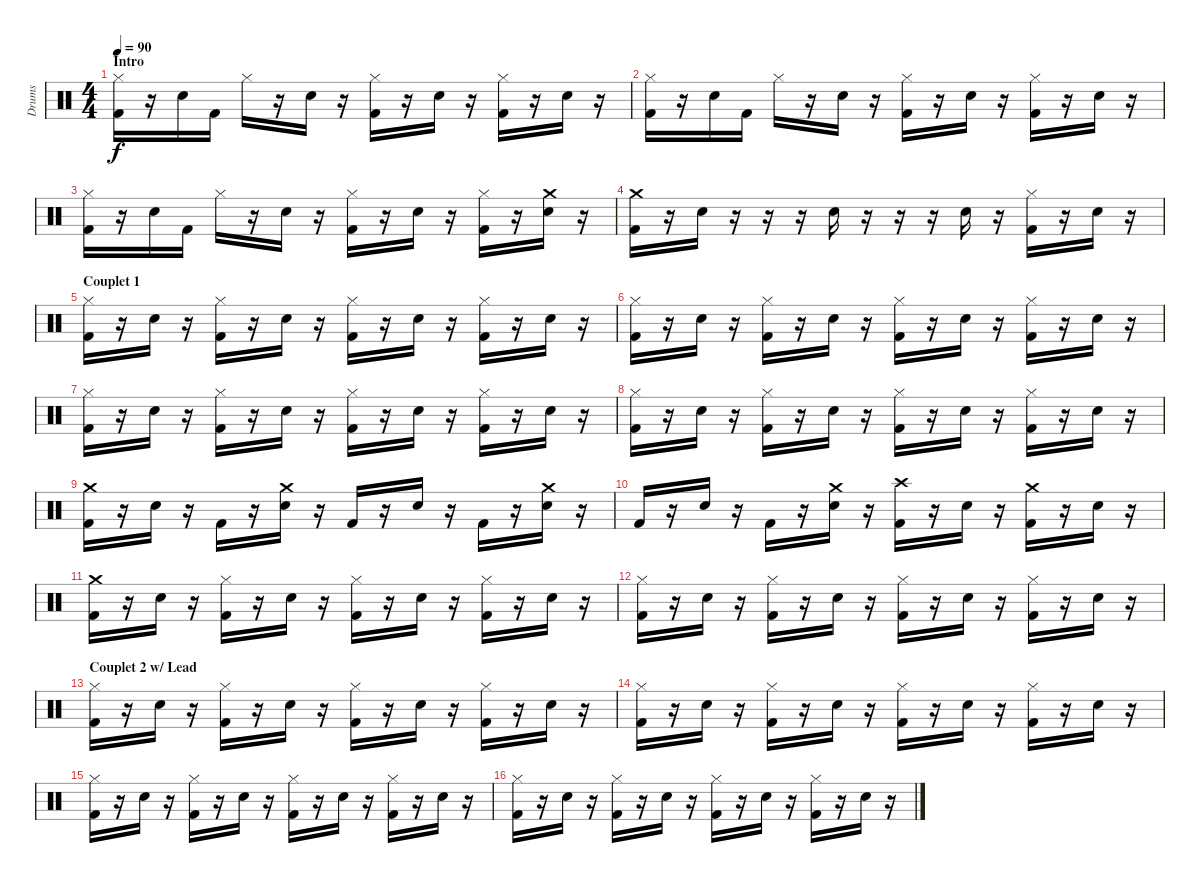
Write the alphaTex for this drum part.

\track ("Drums" "Drums") {instrument percussion}
\staff {score}
\articulation defaults
\ts (4 4)
\section ("" "Intro")
\tempo 90
\clef neutral
\ks c
("Hi-Hat (closed)" "Kick (hit) 2").16{dy f} r.16 "Electric Snare (hit)".16 "Kick (hit) 2".16 "Hi-Hat (closed)".16 r.16 "Electric Snare (hit)".16 r.16 ("Hi-Hat (closed)" "Kick (hit) 2").16 r.16 "Electric Snare (hit)".16 r.16 ("Hi-Hat (closed)" "Kick (hit) 2").16 r.16 "Electric Snare (hit)".16 r.16 |
("Hi-Hat (closed)" "Kick (hit) 2").16 r.16 "Electric Snare (hit)".16 "Kick (hit) 2".16 "Hi-Hat (closed)".16 r.16 "Electric Snare (hit)".16 r.16 ("Hi-Hat (closed)" "Kick (hit) 2").16 r.16 "Electric Snare (hit)".16 r.16 ("Hi-Hat (closed)" "Kick (hit) 2").16 r.16 "Electric Snare (hit)".16 r.16 |
("Hi-Hat (closed)" "Kick (hit) 2").16 r.16 "Electric Snare (hit)".16 "Kick (hit) 2".16 "Hi-Hat (closed)".16 r.16 "Electric Snare (hit)".16 r.16 ("Hi-Hat (closed)" "Kick (hit) 2").16 r.16 "Electric Snare (hit)".16 r.16 ("Hi-Hat (closed)" "Kick (hit) 2").16 r.16 ("Crash medium (hit)" "Electric Snare (hit)").16 r.16 |
("Crash medium (hit)" "Kick (hit) 2").16 r.16 "Electric Snare (hit)".16 r.16 r.16 r.16 "Electric Snare (hit)".16 r.16 r.16 r.16 "Electric Snare (hit)".16 r.16 ("Hi-Hat (closed)" "Kick (hit) 2").16 r.16 "Electric Snare (hit)".16 r.16 |
\section ("" "Couplet 1")
("Hi-Hat (closed)" "Kick (hit) 2").16 r.16 "Electric Snare (hit)".16 r.16 ("Hi-Hat (closed)" "Kick (hit) 2").16 r.16 "Electric Snare (hit)".16 r.16 ("Hi-Hat (closed)" "Kick (hit) 2").16 r.16 "Electric Snare (hit)".16 r.16 ("Hi-Hat (closed)" "Kick (hit) 2").16 r.16 "Electric Snare (hit)".16 r.16 |
("Hi-Hat (closed)" "Kick (hit) 2").16 r.16 "Electric Snare (hit)".16 r.16 ("Hi-Hat (closed)" "Kick (hit) 2").16 r.16 "Electric Snare (hit)".16 r.16 ("Hi-Hat (closed)" "Kick (hit) 2").16 r.16 "Electric Snare (hit)".16 r.16 ("Hi-Hat (closed)" "Kick (hit) 2").16 r.16 "Electric Snare (hit)".16 r.16 |
("Hi-Hat (closed)" "Kick (hit) 2").16 r.16 "Electric Snare (hit)".16 r.16 ("Hi-Hat (closed)" "Kick (hit) 2").16 r.16 "Electric Snare (hit)".16 r.16 ("Hi-Hat (closed)" "Kick (hit) 2").16 r.16 "Electric Snare (hit)".16 r.16 ("Hi-Hat (closed)" "Kick (hit) 2").16 r.16 "Electric Snare (hit)".16 r.16 |
("Hi-Hat (closed)" "Kick (hit) 2").16 r.16 "Electric Snare (hit)".16 r.16 ("Hi-Hat (closed)" "Kick (hit) 2").16 r.16 "Electric Snare (hit)".16 r.16 ("Hi-Hat (closed)" "Kick (hit) 2").16 r.16 "Electric Snare (hit)".16 r.16 ("Hi-Hat (closed)" "Kick (hit) 2").16 r.16 "Electric Snare (hit)".16 r.16 |
("Crash medium (hit)" "Kick (hit) 2").16 r.16 "Electric Snare (hit)".16 r.16 "Kick (hit) 2".16 r.16 ("Crash medium (hit)" "Electric Snare (hit)").16 r.16 "Kick (hit) 2".16 r.16 "Electric Snare (hit)".16 r.16 "Kick (hit) 2".16 r.16 ("Crash medium (hit)" "Electric Snare (hit)").16 r.16 |
"Kick (hit) 2".16 r.16 "Electric Snare (hit)".16 r.16 "Kick (hit) 2".16 r.16 ("Crash medium (hit)" "Electric Snare (hit)").16 r.16 ("Crash high (hit)" "Kick (hit) 2").16 r.16 "Electric Snare (hit)".16 r.16 ("Crash medium (hit)" "Kick (hit) 2").16 r.16 "Electric Snare (hit)".16 r.16 |
("Crash medium (hit)" "Kick (hit) 2").16 r.16 "Electric Snare (hit)".16 r.16 ("Hi-Hat (closed)" "Kick (hit) 2").16 r.16 "Electric Snare (hit)".16 r.16 ("Hi-Hat (closed)" "Kick (hit) 2").16 r.16 "Electric Snare (hit)".16 r.16 ("Hi-Hat (closed)" "Kick (hit) 2").16 r.16 "Electric Snare (hit)".16 r.16 |
("Hi-Hat (closed)" "Kick (hit) 2").16 r.16 "Electric Snare (hit)".16 r.16 ("Hi-Hat (closed)" "Kick (hit) 2").16 r.16 "Electric Snare (hit)".16 r.16 ("Hi-Hat (closed)" "Kick (hit) 2").16 r.16 "Electric Snare (hit)".16 r.16 ("Hi-Hat (closed)" "Kick (hit) 2").16 r.16 "Electric Snare (hit)".16 r.16 |
\section ("" "Couplet 2 w/ Lead")
("Hi-Hat (closed)" "Kick (hit) 2").16 r.16 "Electric Snare (hit)".16 r.16 ("Hi-Hat (closed)" "Kick (hit) 2").16 r.16 "Electric Snare (hit)".16 r.16 ("Hi-Hat (closed)" "Kick (hit) 2").16 r.16 "Electric Snare (hit)".16 r.16 ("Hi-Hat (closed)" "Kick (hit) 2").16 r.16 "Electric Snare (hit)".16 r.16 |
("Hi-Hat (closed)" "Kick (hit) 2").16 r.16 "Electric Snare (hit)".16 r.16 ("Hi-Hat (closed)" "Kick (hit) 2").16 r.16 "Electric Snare (hit)".16 r.16 ("Hi-Hat (closed)" "Kick (hit) 2").16 r.16 "Electric Snare (hit)".16 r.16 ("Hi-Hat (closed)" "Kick (hit) 2").16 r.16 "Electric Snare (hit)".16 r.16 |
("Hi-Hat (closed)" "Kick (hit) 2").16 r.16 "Electric Snare (hit)".16 r.16 ("Hi-Hat (closed)" "Kick (hit) 2").16 r.16 "Electric Snare (hit)".16 r.16 ("Hi-Hat (closed)" "Kick (hit) 2").16 r.16 "Electric Snare (hit)".16 r.16 ("Hi-Hat (closed)" "Kick (hit) 2").16 r.16 "Electric Snare (hit)".16 r.16 |
("Hi-Hat (closed)" "Kick (hit) 2").16 r.16 "Electric Snare (hit)".16 r.16 ("Hi-Hat (closed)" "Kick (hit) 2").16 r.16 "Electric Snare (hit)".16 r.16 ("Hi-Hat (closed)" "Kick (hit) 2").16 r.16 "Electric Snare (hit)".16 r.16 ("Hi-Hat (closed)" "Kick (hit) 2").16 r.16 "Electric Snare (hit)".16 r.16
